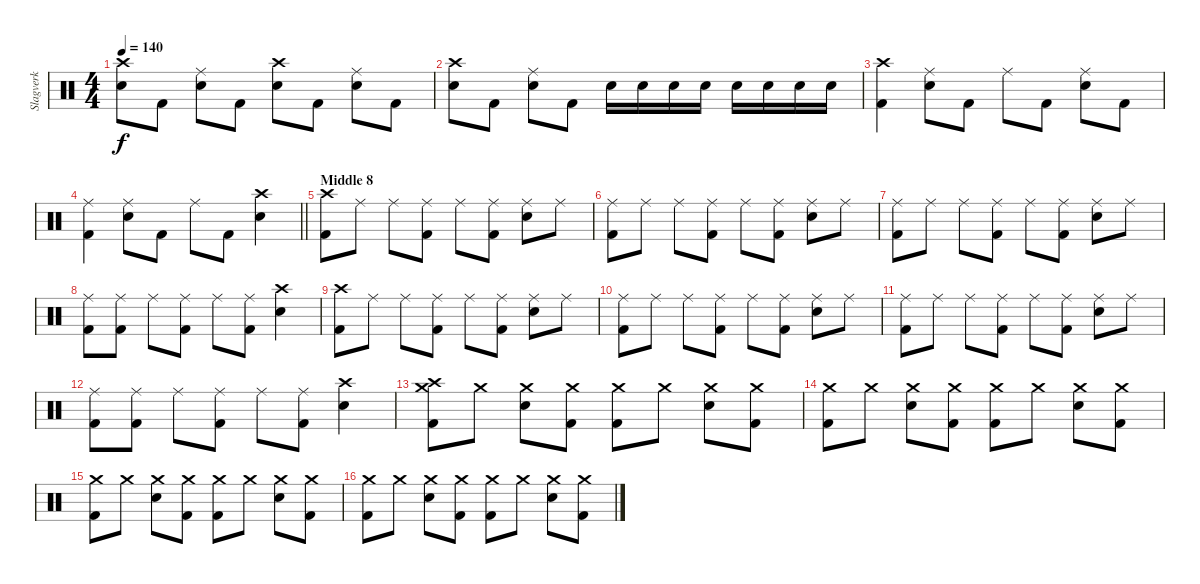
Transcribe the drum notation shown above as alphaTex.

\track ("Slagverk" "Slagverk") {instrument percussion}
\staff {score}
\articulation defaults
\ts (4 4)
\tempo 140
\clef neutral
\ks c
("Crash high (hit)" "Electric Snare (hit)").8{dy f} "Kick (hit) 2".8 ("Ride (middle)" "Electric Snare (hit)").8 "Kick (hit) 2".8 ("Crash high (hit)" "Electric Snare (hit)").8 "Kick (hit) 2".8 ("Ride (middle)" "Electric Snare (hit)").8 "Kick (hit) 2".8 |
("Crash high (hit)" "Electric Snare (hit)").8 "Kick (hit) 2".8 ("Ride (middle)" "Electric Snare (hit)").8 "Kick (hit) 2".8 "Electric Snare (hit)".16 "Electric Snare (hit)".16 "Electric Snare (hit)".16 "Electric Snare (hit)".16 "Electric Snare (hit)".16 "Electric Snare (hit)".16 "Electric Snare (hit)".16 "Electric Snare (hit)".16 |
("Crash high (hit)" "Kick (hit) 2").4 ("Ride (middle)" "Electric Snare (hit)").8 "Kick (hit) 2".8 "Ride (middle)".8 "Kick (hit) 2".8 ("Ride (middle)" "Electric Snare (hit)").8 "Kick (hit) 2".8 |
\barLineRight lightlight
("Ride (middle)" "Kick (hit) 2").4 ("Ride (middle)" "Electric Snare (hit)").8 "Kick (hit) 2".8 "Ride (middle)".8 "Kick (hit) 2".8 ("Crash high (hit)" "Electric Snare (hit)").4 |
\section ("" "Middle 8")
("Crash high (hit)" "Kick (hit) 2").8 "Ride (middle)".8 "Ride (middle)".8 ("Ride (middle)" "Kick (hit) 2").8 "Ride (middle)".8 ("Ride (middle)" "Kick (hit) 2").8 ("Ride (middle)" "Electric Snare (hit)").8 "Ride (middle)".8 |
("Ride (middle)" "Kick (hit) 2").8 "Ride (middle)".8 "Ride (middle)".8 ("Ride (middle)" "Kick (hit) 2").8 "Ride (middle)".8 ("Ride (middle)" "Kick (hit) 2").8 ("Ride (middle)" "Electric Snare (hit)").8 "Ride (middle)".8 |
("Ride (middle)" "Kick (hit) 2").8 "Ride (middle)".8 "Ride (middle)".8 ("Ride (middle)" "Kick (hit) 2").8 "Ride (middle)".8 ("Ride (middle)" "Kick (hit) 2").8 ("Ride (middle)" "Electric Snare (hit)").8 "Ride (middle)".8 |
("Ride (middle)" "Kick (hit) 2").8 ("Ride (middle)" "Kick (hit) 2").8 "Ride (middle)".8 ("Ride (middle)" "Kick (hit) 2").8 "Ride (middle)".8 ("Ride (middle)" "Kick (hit) 2").8 ("Crash high (hit)" "Electric Snare (hit)").4 |
("Crash high (hit)" "Kick (hit) 2").8 "Ride (middle)".8 "Ride (middle)".8 ("Ride (middle)" "Kick (hit) 2").8 "Ride (middle)".8 ("Ride (middle)" "Kick (hit) 2").8 ("Ride (middle)" "Electric Snare (hit)").8 "Ride (middle)".8 |
("Ride (middle)" "Kick (hit) 2").8 "Ride (middle)".8 "Ride (middle)".8 ("Ride (middle)" "Kick (hit) 2").8 "Ride (middle)".8 ("Ride (middle)" "Kick (hit) 2").8 ("Ride (middle)" "Electric Snare (hit)").8 "Ride (middle)".8 |
("Ride (middle)" "Kick (hit) 2").8 "Ride (middle)".8 "Ride (middle)".8 ("Ride (middle)" "Kick (hit) 2").8 "Ride (middle)".8 ("Ride (middle)" "Kick (hit) 2").8 ("Ride (middle)" "Electric Snare (hit)").8 "Ride (middle)".8 |
("Ride (middle)" "Kick (hit) 2").8 ("Ride (middle)" "Kick (hit) 2").8 "Ride (middle)".8 ("Ride (middle)" "Kick (hit) 2").8 "Ride (middle)".8 ("Ride (middle)" "Kick (hit) 2").8 ("Crash high (hit)" "Electric Snare (hit)").4 |
("Crash high (hit)" "Crash medium (hit)" "Kick (hit) 2").8 "Crash medium (hit)".8 ("Crash medium (hit)" "Electric Snare (hit)").8 ("Crash medium (hit)" "Kick (hit) 2").8 ("Crash medium (hit)" "Kick (hit) 2").8 "Crash medium (hit)".8 ("Crash medium (hit)" "Electric Snare (hit)").8 ("Crash medium (hit)" "Kick (hit) 2").8 |
("Crash medium (hit)" "Kick (hit) 2").8 "Crash medium (hit)".8 ("Crash medium (hit)" "Electric Snare (hit)").8 ("Crash medium (hit)" "Kick (hit) 2").8 ("Crash medium (hit)" "Kick (hit) 2").8 "Crash medium (hit)".8 ("Crash medium (hit)" "Electric Snare (hit)").8 ("Crash medium (hit)" "Kick (hit) 2").8 |
("Crash medium (hit)" "Kick (hit) 2").8 "Crash medium (hit)".8 ("Crash medium (hit)" "Electric Snare (hit)").8 ("Crash medium (hit)" "Kick (hit) 2").8 ("Crash medium (hit)" "Kick (hit) 2").8 "Crash medium (hit)".8 ("Crash medium (hit)" "Electric Snare (hit)").8 ("Crash medium (hit)" "Kick (hit) 2").8 |
("Crash medium (hit)" "Kick (hit) 2").8 "Crash medium (hit)".8 ("Crash medium (hit)" "Electric Snare (hit)").8 ("Crash medium (hit)" "Kick (hit) 2").8 ("Crash medium (hit)" "Kick (hit) 2").8 "Crash medium (hit)".8 ("Crash medium (hit)" "Electric Snare (hit)").8 ("Crash medium (hit)" "Kick (hit) 2").8
